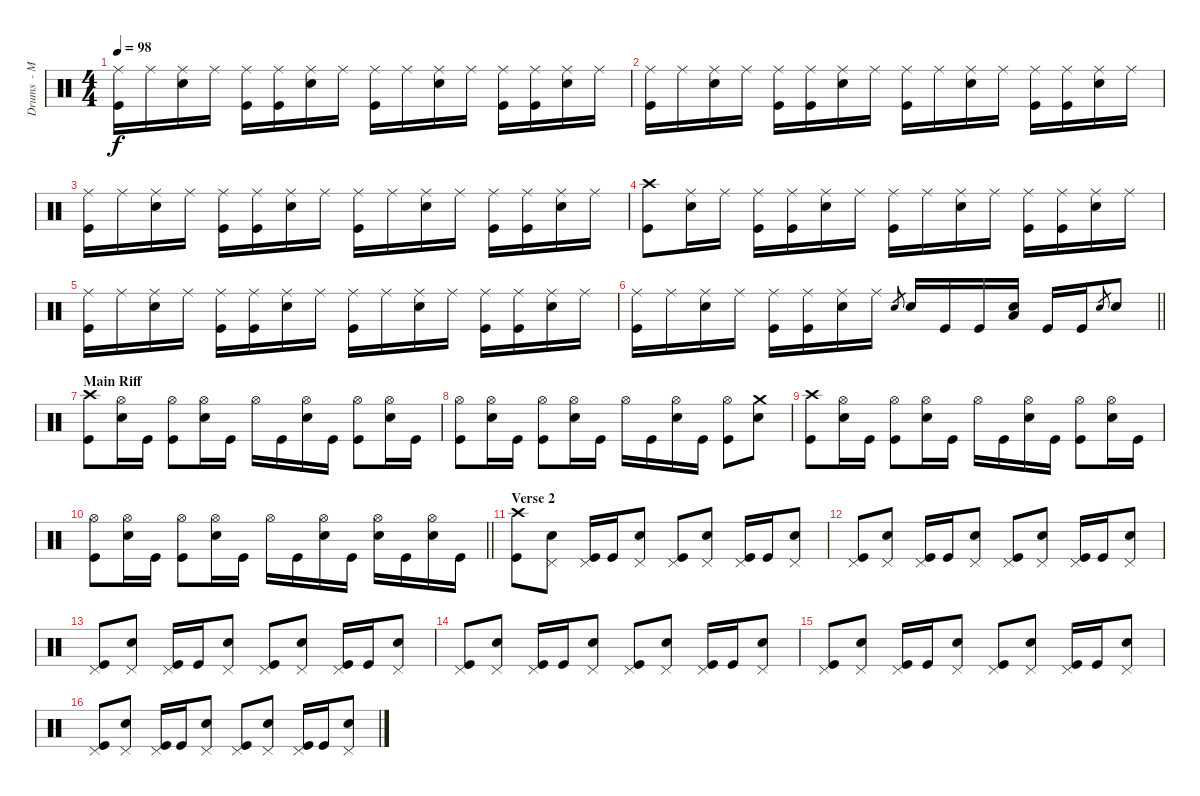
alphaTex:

\track ("Drums  - Mikko" "Drums  - M") {instrument percussion}
\staff {score}
\articulation defaults
\ts (4 4)
\tempo 98
\clef neutral
\ks c
("Ride (middle)" "Kick (hit)").16{dy f} "Ride (middle)".16 ("Ride (middle)" "Electric Snare (hit)").16 "Ride (middle)".16 ("Ride (middle)" "Kick (hit)").16 ("Ride (middle)" "Kick (hit)").16 ("Ride (middle)" "Electric Snare (hit)").16 "Ride (middle)".16 ("Ride (middle)" "Kick (hit)").16 "Ride (middle)".16 ("Ride (middle)" "Electric Snare (hit)").16 "Ride (middle)".16 ("Ride (middle)" "Kick (hit)").16 ("Ride (middle)" "Kick (hit)").16 ("Ride (middle)" "Electric Snare (hit)").16 "Ride (middle)".16 |
("Ride (middle)" "Kick (hit)").16 "Ride (middle)".16 ("Ride (middle)" "Electric Snare (hit)").16 "Ride (middle)".16 ("Ride (middle)" "Kick (hit)").16 ("Ride (middle)" "Kick (hit)").16 ("Ride (middle)" "Electric Snare (hit)").16 "Ride (middle)".16 ("Ride (middle)" "Kick (hit)").16 "Ride (middle)".16 ("Ride (middle)" "Electric Snare (hit)").16 "Ride (middle)".16 ("Ride (middle)" "Kick (hit)").16 ("Ride (middle)" "Kick (hit)").16 ("Ride (middle)" "Electric Snare (hit)").16 "Ride (middle)".16 |
("Ride (middle)" "Kick (hit)").16 "Ride (middle)".16 ("Ride (middle)" "Electric Snare (hit)").16 "Ride (middle)".16 ("Ride (middle)" "Kick (hit)").16 ("Ride (middle)" "Kick (hit)").16 ("Ride (middle)" "Electric Snare (hit)").16 "Ride (middle)".16 ("Ride (middle)" "Kick (hit)").16 "Ride (middle)".16 ("Ride (middle)" "Electric Snare (hit)").16 "Ride (middle)".16 ("Ride (middle)" "Kick (hit)").16 ("Ride (middle)" "Kick (hit)").16 ("Ride (middle)" "Electric Snare (hit)").16 "Ride (middle)".16 |
("Crash high (hit)" "Kick (hit)").8 ("Ride (middle)" "Electric Snare (hit)").16 "Ride (middle)".16 ("Ride (middle)" "Kick (hit)").16 ("Ride (middle)" "Kick (hit)").16 ("Ride (middle)" "Electric Snare (hit)").16 "Ride (middle)".16 ("Ride (middle)" "Kick (hit)").16 "Ride (middle)".16 ("Ride (middle)" "Electric Snare (hit)").16 "Ride (middle)".16 ("Ride (middle)" "Kick (hit)").16 ("Ride (middle)" "Kick (hit)").16 ("Ride (middle)" "Electric Snare (hit)").16 "Ride (middle)".16 |
("Ride (middle)" "Kick (hit)").16 "Ride (middle)".16 ("Ride (middle)" "Electric Snare (hit)").16 "Ride (middle)".16 ("Ride (middle)" "Kick (hit)").16 ("Ride (middle)" "Kick (hit)").16 ("Ride (middle)" "Electric Snare (hit)").16 "Ride (middle)".16 ("Ride (middle)" "Kick (hit)").16 "Ride (middle)".16 ("Ride (middle)" "Electric Snare (hit)").16 "Ride (middle)".16 ("Ride (middle)" "Kick (hit)").16 ("Ride (middle)" "Kick (hit)").16 ("Ride (middle)" "Electric Snare (hit)").16 "Ride (middle)".16 |
\barLineRight lightlight
("Ride (middle)" "Kick (hit)").16 "Ride (middle)".16 ("Ride (middle)" "Electric Snare (hit)").16 "Ride (middle)".16 ("Ride (middle)" "Kick (hit)").16 ("Ride (middle)" "Kick (hit)").16 ("Ride (middle)" "Electric Snare (hit)").16 "Ride (middle)".16 "Electric Snare (hit)".8{gr} "Electric Snare (hit)".16 "Kick (hit)".16 "Kick (hit)".16 ("Low Floor Tom (hit)" "Electric Snare (hit)").16 "Kick (hit)".16 "Kick (hit)".16 "Electric Snare (hit)".8{gr} "Electric Snare (hit)".8 |
\section ("" "Main Riff")
("Crash high (hit)" "Kick (hit)").8 ("Hi-Hat (open)" "Electric Snare (hit)").16 "Kick (hit)".16 ("Hi-Hat (open)" "Kick (hit)").8 ("Hi-Hat (open)" "Electric Snare (hit)").16 "Kick (hit)".16 "Hi-Hat (open)".16 "Kick (hit)".16 ("Hi-Hat (open)" "Electric Snare (hit)").16 "Kick (hit)".16 ("Hi-Hat (open)" "Kick (hit)").8 ("Hi-Hat (open)" "Electric Snare (hit)").16 "Kick (hit)".16 |
("Hi-Hat (open)" "Kick (hit)").8 ("Hi-Hat (open)" "Electric Snare (hit)").16 "Kick (hit)".16 ("Hi-Hat (open)" "Kick (hit)").8 ("Hi-Hat (open)" "Electric Snare (hit)").16 "Kick (hit)".16 "Hi-Hat (open)".16 "Kick (hit)".16 ("Hi-Hat (open)" "Electric Snare (hit)").16 "Kick (hit)".16 ("Hi-Hat (open)" "Kick (hit)").8 ("Crash medium (hit)" "Electric Snare (hit)").8 |
("Crash high (hit)" "Kick (hit)").8 ("Hi-Hat (open)" "Electric Snare (hit)").16 "Kick (hit)".16 ("Hi-Hat (open)" "Kick (hit)").8 ("Hi-Hat (open)" "Electric Snare (hit)").16 "Kick (hit)".16 "Hi-Hat (open)".16 "Kick (hit)".16 ("Hi-Hat (open)" "Electric Snare (hit)").16 "Kick (hit)".16 ("Hi-Hat (open)" "Kick (hit)").8 ("Hi-Hat (open)" "Electric Snare (hit)").16 "Kick (hit)".16 |
\barLineRight lightlight
("Hi-Hat (open)" "Kick (hit)").8 ("Hi-Hat (open)" "Electric Snare (hit)").16 "Kick (hit)".16 ("Hi-Hat (open)" "Kick (hit)").8 ("Hi-Hat (open)" "Electric Snare (hit)").16 "Kick (hit)".16 "Hi-Hat (open)".16 "Kick (hit)".16 ("Hi-Hat (open)" "Electric Snare (hit)").16 "Kick (hit)".16 ("Hi-Hat (open)" "Electric Snare (hit)").16 "Kick (hit)".16 ("Hi-Hat (open)" "Electric Snare (hit)").16 "Kick (hit)".16 |
\section ("" "Verse 2")
("Crash high (hit)" "Kick (hit)").8 ("Pedal Hi-Hat (hit)" "Electric Snare (hit)").8 ("Pedal Hi-Hat (hit)" "Kick (hit)").16 "Kick (hit)".16 ("Pedal Hi-Hat (hit)" "Electric Snare (hit)").8 ("Pedal Hi-Hat (hit)" "Kick (hit)").8 ("Pedal Hi-Hat (hit)" "Electric Snare (hit)").8 ("Pedal Hi-Hat (hit)" "Kick (hit)").16 "Kick (hit)".16 ("Pedal Hi-Hat (hit)" "Electric Snare (hit)").8 |
("Pedal Hi-Hat (hit)" "Kick (hit)").8 ("Pedal Hi-Hat (hit)" "Electric Snare (hit)").8 ("Pedal Hi-Hat (hit)" "Kick (hit)").16 "Kick (hit)".16 ("Pedal Hi-Hat (hit)" "Electric Snare (hit)").8 ("Pedal Hi-Hat (hit)" "Kick (hit)").8 ("Pedal Hi-Hat (hit)" "Electric Snare (hit)").8 ("Pedal Hi-Hat (hit)" "Kick (hit)").16 "Kick (hit)".16 ("Pedal Hi-Hat (hit)" "Electric Snare (hit)").8 |
("Pedal Hi-Hat (hit)" "Kick (hit)").8 ("Pedal Hi-Hat (hit)" "Electric Snare (hit)").8 ("Pedal Hi-Hat (hit)" "Kick (hit)").16 "Kick (hit)".16 ("Pedal Hi-Hat (hit)" "Electric Snare (hit)").8 ("Pedal Hi-Hat (hit)" "Kick (hit)").8 ("Pedal Hi-Hat (hit)" "Electric Snare (hit)").8 ("Pedal Hi-Hat (hit)" "Kick (hit)").16 "Kick (hit)".16 ("Pedal Hi-Hat (hit)" "Electric Snare (hit)").8 |
("Pedal Hi-Hat (hit)" "Kick (hit)").8 ("Pedal Hi-Hat (hit)" "Electric Snare (hit)").8 ("Pedal Hi-Hat (hit)" "Kick (hit)").16 "Kick (hit)".16 ("Pedal Hi-Hat (hit)" "Electric Snare (hit)").8 ("Pedal Hi-Hat (hit)" "Kick (hit)").8 ("Pedal Hi-Hat (hit)" "Electric Snare (hit)").8 ("Pedal Hi-Hat (hit)" "Kick (hit)").16 "Kick (hit)".16 ("Pedal Hi-Hat (hit)" "Electric Snare (hit)").8 |
("Pedal Hi-Hat (hit)" "Kick (hit)").8 ("Pedal Hi-Hat (hit)" "Electric Snare (hit)").8 ("Pedal Hi-Hat (hit)" "Kick (hit)").16 "Kick (hit)".16 ("Pedal Hi-Hat (hit)" "Electric Snare (hit)").8 ("Pedal Hi-Hat (hit)" "Kick (hit)").8 ("Pedal Hi-Hat (hit)" "Electric Snare (hit)").8 ("Pedal Hi-Hat (hit)" "Kick (hit)").16 "Kick (hit)".16 ("Pedal Hi-Hat (hit)" "Electric Snare (hit)").8 |
("Pedal Hi-Hat (hit)" "Kick (hit)").8 ("Pedal Hi-Hat (hit)" "Electric Snare (hit)").8 ("Pedal Hi-Hat (hit)" "Kick (hit)").16 "Kick (hit)".16 ("Pedal Hi-Hat (hit)" "Electric Snare (hit)").8 ("Pedal Hi-Hat (hit)" "Kick (hit)").8 ("Pedal Hi-Hat (hit)" "Electric Snare (hit)").8 ("Pedal Hi-Hat (hit)" "Kick (hit)").16 "Kick (hit)".16 ("Pedal Hi-Hat (hit)" "Electric Snare (hit)").8
